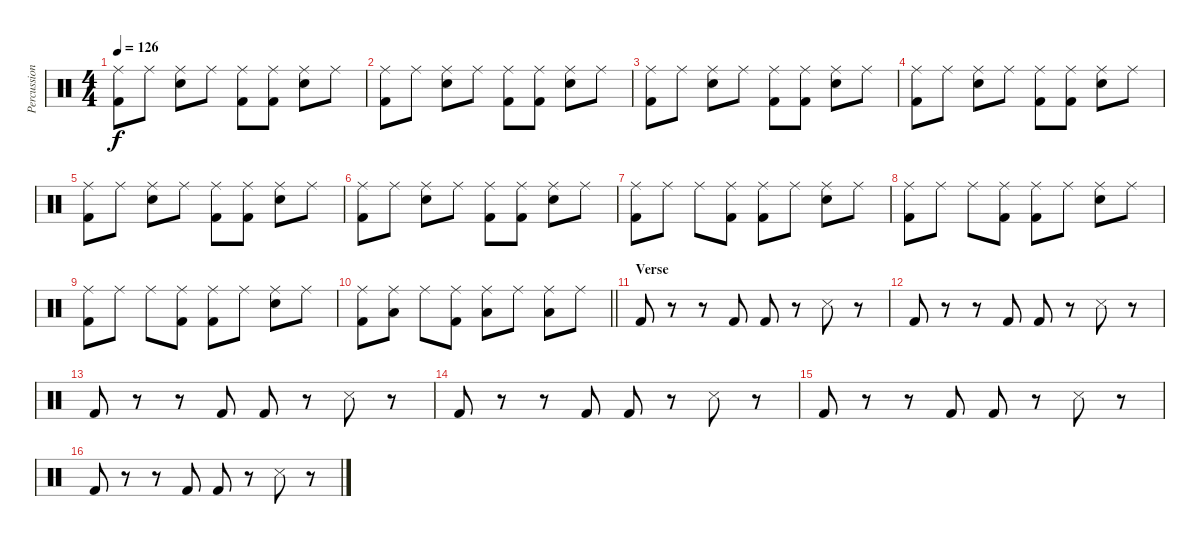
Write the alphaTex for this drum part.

\track ("Percussions" "Percussion") {instrument percussion}
\staff {score}
\articulation defaults
\ts (4 4)
\tempo 126
\clef neutral
\ks c
("Ride (middle)" "Kick (hit) 2").8{dy f} "Ride (middle)".8 ("Ride (middle)" "Snare (hit) 2").8 "Ride (middle)".8 ("Ride (middle)" "Kick (hit) 2").8 ("Ride (middle)" "Kick (hit) 2").8 ("Ride (middle)" "Snare (hit) 2").8 "Ride (middle)".8 |
("Ride (middle)" "Kick (hit) 2").8 "Ride (middle)".8 ("Ride (middle)" "Snare (hit) 2").8 "Ride (middle)".8 ("Ride (middle)" "Kick (hit) 2").8 ("Ride (middle)" "Kick (hit) 2").8 ("Ride (middle)" "Snare (hit) 2").8 "Ride (middle)".8 |
("Ride (middle)" "Kick (hit) 2").8 "Ride (middle)".8 ("Ride (middle)" "Snare (hit) 2").8 "Ride (middle)".8 ("Ride (middle)" "Kick (hit) 2").8 ("Ride (middle)" "Kick (hit) 2").8 ("Ride (middle)" "Snare (hit) 2").8 "Ride (middle)".8 |
("Ride (middle)" "Kick (hit) 2").8 "Ride (middle)".8 ("Ride (middle)" "Snare (hit) 2").8 "Ride (middle)".8 ("Ride (middle)" "Kick (hit) 2").8 ("Ride (middle)" "Kick (hit) 2").8 ("Ride (middle)" "Snare (hit) 2").8 "Ride (middle)".8 |
("Ride (middle)" "Kick (hit) 2").8 "Ride (middle)".8 ("Ride (middle)" "Snare (hit) 2").8 "Ride (middle)".8 ("Ride (middle)" "Kick (hit) 2").8 ("Ride (middle)" "Kick (hit) 2").8 ("Ride (middle)" "Snare (hit) 2").8 "Ride (middle)".8 |
("Ride (middle)" "Kick (hit) 2").8 "Ride (middle)".8 ("Ride (middle)" "Snare (hit) 2").8 "Ride (middle)".8 ("Ride (middle)" "Kick (hit) 2").8 ("Ride (middle)" "Kick (hit) 2").8 ("Ride (middle)" "Snare (hit) 2").8 "Ride (middle)".8 |
("Ride (middle)" "Kick (hit) 2").8 "Ride (middle)".8 "Ride (middle)".8 ("Ride (middle)" "Kick (hit) 2").8 ("Ride (middle)" "Kick (hit) 2").8 "Ride (middle)".8 ("Ride (middle)" "Snare (hit) 2").8 "Ride (middle)".8 |
("Ride (middle)" "Kick (hit) 2").8 "Ride (middle)".8 "Ride (middle)".8 ("Ride (middle)" "Kick (hit) 2").8 ("Ride (middle)" "Kick (hit) 2").8 "Ride (middle)".8 ("Ride (middle)" "Snare (hit) 2").8 "Ride (middle)".8 |
("Ride (middle)" "Kick (hit) 2").8 "Ride (middle)".8 "Ride (middle)".8 ("Ride (middle)" "Kick (hit) 2").8 ("Ride (middle)" "Kick (hit) 2").8 "Ride (middle)".8 ("Ride (middle)" "Snare (hit) 2").8 "Ride (middle)".8 |
\barLineRight lightlight
("Ride (middle)" "Kick (hit) 2").8 ("Ride (middle)" "Low Tom (hit)").8 "Ride (middle)".8 ("Ride (middle)" "Kick (hit) 2").8 ("Ride (middle)" "Low Tom (hit)").8 "Ride (middle)".8 ("Ride (middle)" "Low Floor Tom (hit)").8 "Ride (middle)".8 |
\section ("" "Verse")
"Kick (hit) 2".8 r.8 r.8 "Kick (hit) 2".8 "Kick (hit) 2".8 r.8 "Snare (side stick) 3".8 r.8 |
"Kick (hit) 2".8 r.8 r.8 "Kick (hit) 2".8 "Kick (hit) 2".8 r.8 "Snare (side stick) 3".8 r.8 |
"Kick (hit) 2".8 r.8 r.8 "Kick (hit) 2".8 "Kick (hit) 2".8 r.8 "Snare (side stick) 3".8 r.8 |
"Kick (hit) 2".8 r.8 r.8 "Kick (hit) 2".8 "Kick (hit) 2".8 r.8 "Snare (side stick) 3".8 r.8 |
"Kick (hit) 2".8 r.8 r.8 "Kick (hit) 2".8 "Kick (hit) 2".8 r.8 "Snare (side stick) 3".8 r.8 |
"Kick (hit) 2".8 r.8 r.8 "Kick (hit) 2".8 "Kick (hit) 2".8 r.8 "Snare (side stick) 3".8 r.8
